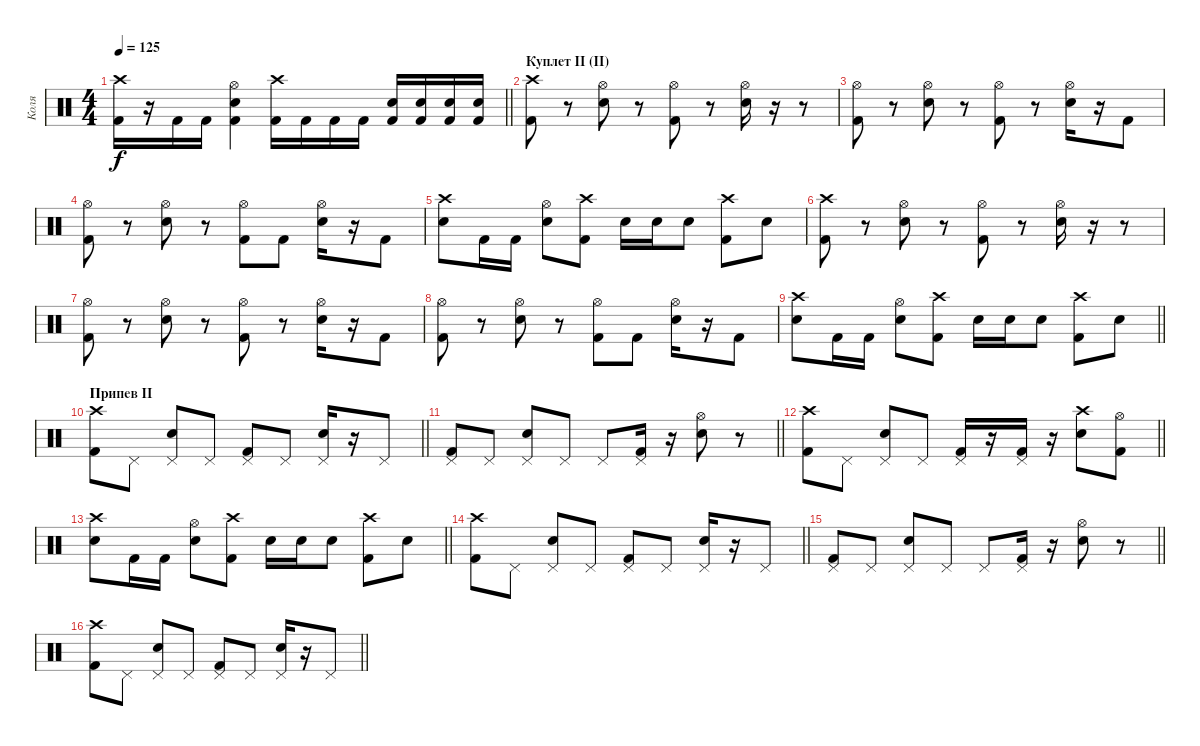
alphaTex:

\track ("Коля" "Коля") {instrument percussion}
\staff {score}
\articulation defaults
\ts (4 4)
\tempo 125
\clef neutral
\barLineRight lightlight
\ks c
("Kick (hit) 2" "Crash high (hit)").16{dy f} r.16 "Kick (hit) 2".16 "Kick (hit) 2".16 ("Kick (hit) 2" "Electric Snare (hit)" "Hi-Hat (open)").4 ("Kick (hit) 2" "Crash high (hit)").16 "Kick (hit) 2".16 "Kick (hit) 2".16 "Kick (hit) 2".16 ("Kick (hit) 2" "Electric Snare (hit)").16 ("Kick (hit) 2" "Electric Snare (hit)").16 ("Kick (hit) 2" "Electric Snare (hit)").16 ("Kick (hit) 2" "Electric Snare (hit)").16 |
\section ("" "Куплет II (II)")
("Kick (hit) 2" "Crash high (hit)").8 r.8 ("Electric Snare (hit)" "Hi-Hat (open)").8 r.8 ("Kick (hit) 2" "Hi-Hat (open)").8 r.8 ("Electric Snare (hit)" "Hi-Hat (open)").16 r.16 r.8 |
("Kick (hit) 2" "Hi-Hat (open)").8 r.8 ("Electric Snare (hit)" "Hi-Hat (open)").8 r.8 ("Kick (hit) 2" "Hi-Hat (open)").8 r.8 ("Electric Snare (hit)" "Hi-Hat (open)").16 r.16 "Kick (hit) 2".8 |
("Kick (hit) 2" "Hi-Hat (open)").8 r.8 ("Electric Snare (hit)" "Hi-Hat (open)").8 r.8 ("Kick (hit) 2" "Hi-Hat (open)").8 "Kick (hit) 2".8 ("Electric Snare (hit)" "Hi-Hat (open)").16 r.16 "Kick (hit) 2".8 |
("Electric Snare (hit)" "Crash high (hit)").8 "Kick (hit) 2".16 "Kick (hit) 2".16 ("Electric Snare (hit)" "Hi-Hat (open)").8 ("Kick (hit) 2" "Crash high (hit)").8 "Electric Snare (hit)".16 "Electric Snare (hit)".16 "Electric Snare (hit)".8 ("Kick (hit) 2" "Crash high (hit)").8 "Electric Snare (hit)".8 |
("Kick (hit) 2" "Crash high (hit)").8 r.8 ("Electric Snare (hit)" "Hi-Hat (open)").8 r.8 ("Kick (hit) 2" "Hi-Hat (open)").8 r.8 ("Electric Snare (hit)" "Hi-Hat (open)").16 r.16 r.8 |
("Kick (hit) 2" "Hi-Hat (open)").8 r.8 ("Electric Snare (hit)" "Hi-Hat (open)").8 r.8 ("Kick (hit) 2" "Hi-Hat (open)").8 r.8 ("Electric Snare (hit)" "Hi-Hat (open)").16 r.16 "Kick (hit) 2".8 |
("Kick (hit) 2" "Hi-Hat (open)").8 r.8 ("Electric Snare (hit)" "Hi-Hat (open)").8 r.8 ("Kick (hit) 2" "Hi-Hat (open)").8 "Kick (hit) 2".8 ("Electric Snare (hit)" "Hi-Hat (open)").16 r.16 "Kick (hit) 2".8 |
\barLineRight lightlight
("Electric Snare (hit)" "Crash high (hit)").8 "Kick (hit) 2".16 "Kick (hit) 2".16 ("Electric Snare (hit)" "Hi-Hat (open)").8 ("Kick (hit) 2" "Crash high (hit)").8 "Electric Snare (hit)".16 "Electric Snare (hit)".16 "Electric Snare (hit)".8 ("Kick (hit) 2" "Crash high (hit)").8 "Electric Snare (hit)".8 |
\section ("" "Припев II")
\barLineRight lightlight
("Kick (hit) 2" "Crash high (hit)").8 "Pedal Hi-Hat (hit)".8 ("Electric Snare (hit)" "Pedal Hi-Hat (hit)").8 "Pedal Hi-Hat (hit)".8 ("Kick (hit) 2" "Pedal Hi-Hat (hit)").8 "Pedal Hi-Hat (hit)".8 ("Electric Snare (hit)" "Pedal Hi-Hat (hit)").16 r.16 "Pedal Hi-Hat (hit)".8 |
\barLineRight lightlight
("Kick (hit) 2" "Pedal Hi-Hat (hit)").8 "Pedal Hi-Hat (hit)".8 ("Electric Snare (hit)" "Pedal Hi-Hat (hit)").8 "Pedal Hi-Hat (hit)".8 "Pedal Hi-Hat (hit)".8 ("Kick (hit) 2" "Pedal Hi-Hat (hit)").16 r.16 ("Electric Snare (hit)" "Hi-Hat (open)").8 r.8 |
\barLineRight lightlight
("Kick (hit) 2" "Crash high (hit)").8 "Pedal Hi-Hat (hit)".8 ("Electric Snare (hit)" "Pedal Hi-Hat (hit)").8 "Pedal Hi-Hat (hit)".8 ("Kick (hit) 2" "Pedal Hi-Hat (hit)").16 r.16 ("Kick (hit) 2" "Pedal Hi-Hat (hit)").16 r.16 ("Electric Snare (hit)" "Crash high (hit)").8 ("Kick (hit) 2" "Hi-Hat (open)").8 |
\barLineRight lightlight
("Electric Snare (hit)" "Crash high (hit)").8 "Kick (hit) 2".16 "Kick (hit) 2".16 ("Electric Snare (hit)" "Hi-Hat (open)").8 ("Kick (hit) 2" "Crash high (hit)").8 "Electric Snare (hit)".16 "Electric Snare (hit)".16 "Electric Snare (hit)".8 ("Kick (hit) 2" "Crash high (hit)").8 "Electric Snare (hit)".8 |
\barLineRight lightlight
("Kick (hit) 2" "Crash high (hit)").8 "Pedal Hi-Hat (hit)".8 ("Electric Snare (hit)" "Pedal Hi-Hat (hit)").8 "Pedal Hi-Hat (hit)".8 ("Kick (hit) 2" "Pedal Hi-Hat (hit)").8 "Pedal Hi-Hat (hit)".8 ("Electric Snare (hit)" "Pedal Hi-Hat (hit)").16 r.16 "Pedal Hi-Hat (hit)".8 |
\barLineRight lightlight
("Kick (hit) 2" "Pedal Hi-Hat (hit)").8 "Pedal Hi-Hat (hit)".8 ("Electric Snare (hit)" "Pedal Hi-Hat (hit)").8 "Pedal Hi-Hat (hit)".8 "Pedal Hi-Hat (hit)".8 ("Kick (hit) 2" "Pedal Hi-Hat (hit)").16 r.16 ("Electric Snare (hit)" "Hi-Hat (open)").8 r.8 |
\barLineRight lightlight
("Kick (hit) 2" "Crash high (hit)").8 "Pedal Hi-Hat (hit)".8 ("Electric Snare (hit)" "Pedal Hi-Hat (hit)").8 "Pedal Hi-Hat (hit)".8 ("Kick (hit) 2" "Pedal Hi-Hat (hit)").8 "Pedal Hi-Hat (hit)".8 ("Electric Snare (hit)" "Pedal Hi-Hat (hit)").16 r.16 "Pedal Hi-Hat (hit)".8
